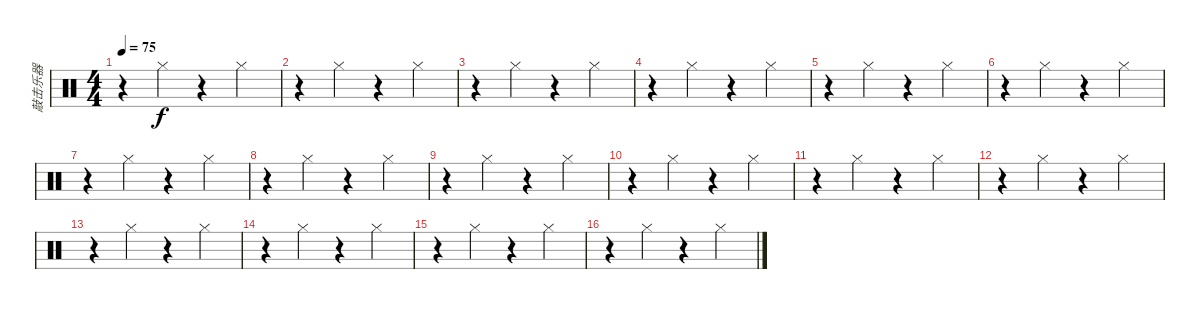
\track ("敲击乐器" "敲击乐器") {instrument percussion}
\staff {score}
\articulation defaults
\ts (4 4)
\tempo 75
\clef neutral
\ks c
r.4{dy f} "Hi-Hat (closed)".4 r.4 "Hi-Hat (closed)".4 |
r.4 "Hi-Hat (closed)".4 r.4 "Hi-Hat (closed)".4 |
r.4 "Hi-Hat (closed)".4 r.4 "Hi-Hat (closed)".4 |
r.4 "Hi-Hat (closed)".4 r.4 "Hi-Hat (closed)".4 |
r.4 "Hi-Hat (closed)".4 r.4 "Hi-Hat (closed)".4 |
r.4 "Hi-Hat (closed)".4 r.4 "Hi-Hat (closed)".4 |
r.4 "Hi-Hat (closed)".4 r.4 "Hi-Hat (closed)".4 |
r.4 "Hi-Hat (closed)".4 r.4 "Hi-Hat (closed)".4 |
r.4 "Hi-Hat (closed)".4 r.4 "Hi-Hat (closed)".4 |
r.4 "Hi-Hat (closed)".4 r.4 "Hi-Hat (closed)".4 |
r.4 "Hi-Hat (closed)".4 r.4 "Hi-Hat (closed)".4 |
r.4 "Hi-Hat (closed)".4 r.4 "Hi-Hat (closed)".4 |
r.4 "Hi-Hat (closed)".4 r.4 "Hi-Hat (closed)".4 |
r.4 "Hi-Hat (closed)".4 r.4 "Hi-Hat (closed)".4 |
r.4 "Hi-Hat (closed)".4 r.4 "Hi-Hat (closed)".4 |
r.4 "Hi-Hat (closed)".4 r.4 "Hi-Hat (closed)".4
